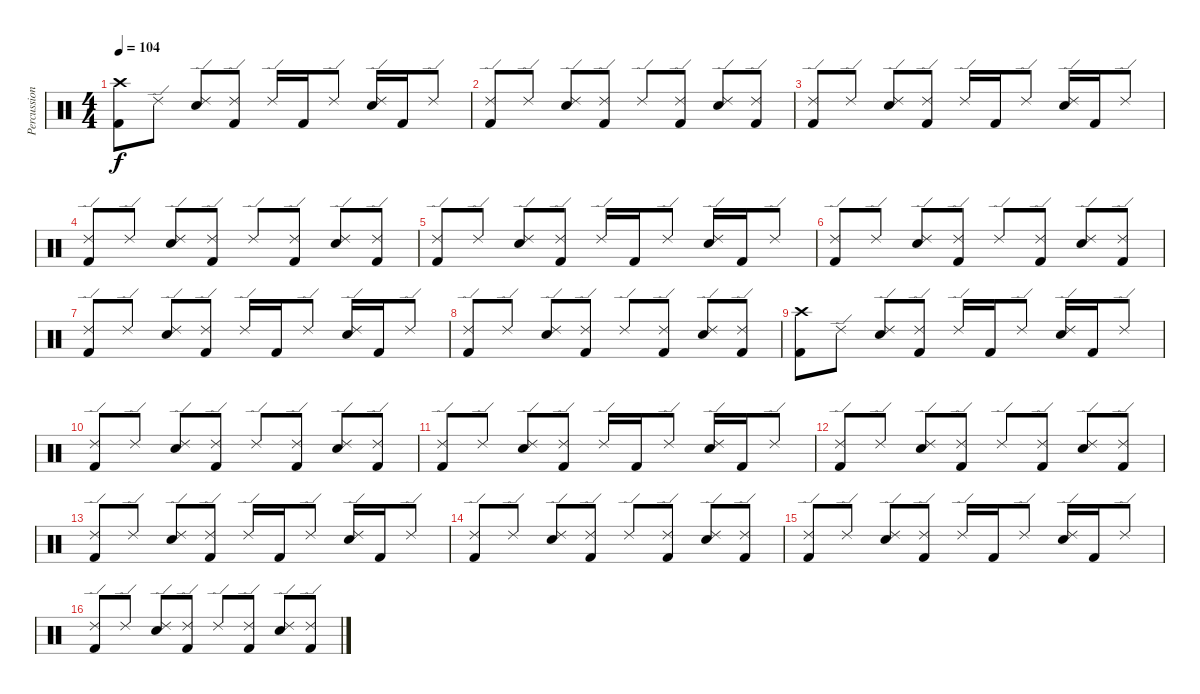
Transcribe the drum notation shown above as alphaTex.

\track ("Percussion" "Percussion") {instrument percussion}
\staff {score}
\articulation defaults
\ts (4 4)
\tempo 104
\clef neutral
\ks c
("Crash high (hit)" "Kick (hit) 2").8{dy f} "Ride (edge) 2".8 ("Ride (edge) 2" "Snare (hit) 2").8 ("Ride (edge) 2" "Kick (hit) 2").8 "Ride (edge) 2".16 "Kick (hit) 2".16 "Ride (edge) 2".8 ("Ride (edge) 2" "Snare (hit) 2").16 "Kick (hit) 2".16 "Ride (edge) 2".8 |
("Ride (edge) 2" "Kick (hit) 2").8 "Ride (edge) 2".8 ("Ride (edge) 2" "Snare (hit) 2").8 ("Ride (edge) 2" "Kick (hit) 2").8 "Ride (edge) 2".8 ("Ride (edge) 2" "Kick (hit) 2").8 ("Ride (edge) 2" "Snare (hit) 2").8 ("Ride (edge) 2" "Kick (hit) 2").8 |
("Ride (edge) 2" "Kick (hit) 2").8 "Ride (edge) 2".8 ("Ride (edge) 2" "Snare (hit) 2").8 ("Ride (edge) 2" "Kick (hit) 2").8 "Ride (edge) 2".16 "Kick (hit) 2".16 "Ride (edge) 2".8 ("Ride (edge) 2" "Snare (hit) 2").16 "Kick (hit) 2".16 "Ride (edge) 2".8 |
("Ride (edge) 2" "Kick (hit) 2").8 "Ride (edge) 2".8 ("Ride (edge) 2" "Snare (hit) 2").8 ("Ride (edge) 2" "Kick (hit) 2").8 "Ride (edge) 2".8 ("Ride (edge) 2" "Kick (hit) 2").8 ("Ride (edge) 2" "Snare (hit) 2").8 ("Ride (edge) 2" "Kick (hit) 2").8 |
("Ride (edge) 2" "Kick (hit) 2").8 "Ride (edge) 2".8 ("Ride (edge) 2" "Snare (hit) 2").8 ("Ride (edge) 2" "Kick (hit) 2").8 "Ride (edge) 2".16 "Kick (hit) 2".16 "Ride (edge) 2".8 ("Ride (edge) 2" "Snare (hit) 2").16 "Kick (hit) 2".16 "Ride (edge) 2".8 |
("Ride (edge) 2" "Kick (hit) 2").8 "Ride (edge) 2".8 ("Ride (edge) 2" "Snare (hit) 2").8 ("Ride (edge) 2" "Kick (hit) 2").8 "Ride (edge) 2".8 ("Ride (edge) 2" "Kick (hit) 2").8 ("Ride (edge) 2" "Snare (hit) 2").8 ("Ride (edge) 2" "Kick (hit) 2").8 |
("Ride (edge) 2" "Kick (hit) 2").8 "Ride (edge) 2".8 ("Ride (edge) 2" "Snare (hit) 2").8 ("Ride (edge) 2" "Kick (hit) 2").8 "Ride (edge) 2".16 "Kick (hit) 2".16 "Ride (edge) 2".8 ("Ride (edge) 2" "Snare (hit) 2").16 "Kick (hit) 2".16 "Ride (edge) 2".8 |
("Ride (edge) 2" "Kick (hit) 2").8 "Ride (edge) 2".8 ("Ride (edge) 2" "Snare (hit) 2").8 ("Ride (edge) 2" "Kick (hit) 2").8 "Ride (edge) 2".8 ("Ride (edge) 2" "Kick (hit) 2").8 ("Ride (edge) 2" "Snare (hit) 2").8 ("Ride (edge) 2" "Kick (hit) 2").8 |
("Crash high (hit)" "Kick (hit) 2").8 "Ride (edge) 2".8 ("Ride (edge) 2" "Snare (hit) 2").8 ("Ride (edge) 2" "Kick (hit) 2").8 "Ride (edge) 2".16 "Kick (hit) 2".16 "Ride (edge) 2".8 ("Ride (edge) 2" "Snare (hit) 2").16 "Kick (hit) 2".16 "Ride (edge) 2".8 |
("Ride (edge) 2" "Kick (hit) 2").8 "Ride (edge) 2".8 ("Ride (edge) 2" "Snare (hit) 2").8 ("Ride (edge) 2" "Kick (hit) 2").8 "Ride (edge) 2".8 ("Ride (edge) 2" "Kick (hit) 2").8 ("Ride (edge) 2" "Snare (hit) 2").8 ("Ride (edge) 2" "Kick (hit) 2").8 |
("Ride (edge) 2" "Kick (hit) 2").8 "Ride (edge) 2".8 ("Ride (edge) 2" "Snare (hit) 2").8 ("Ride (edge) 2" "Kick (hit) 2").8 "Ride (edge) 2".16 "Kick (hit) 2".16 "Ride (edge) 2".8 ("Ride (edge) 2" "Snare (hit) 2").16 "Kick (hit) 2".16 "Ride (edge) 2".8 |
("Ride (edge) 2" "Kick (hit) 2").8 "Ride (edge) 2".8 ("Ride (edge) 2" "Snare (hit) 2").8 ("Ride (edge) 2" "Kick (hit) 2").8 "Ride (edge) 2".8 ("Ride (edge) 2" "Kick (hit) 2").8 ("Ride (edge) 2" "Snare (hit) 2").8 ("Ride (edge) 2" "Kick (hit) 2").8 |
("Ride (edge) 2" "Kick (hit) 2").8 "Ride (edge) 2".8 ("Ride (edge) 2" "Snare (hit) 2").8 ("Ride (edge) 2" "Kick (hit) 2").8 "Ride (edge) 2".16 "Kick (hit) 2".16 "Ride (edge) 2".8 ("Ride (edge) 2" "Snare (hit) 2").16 "Kick (hit) 2".16 "Ride (edge) 2".8 |
("Ride (edge) 2" "Kick (hit) 2").8 "Ride (edge) 2".8 ("Ride (edge) 2" "Snare (hit) 2").8 ("Ride (edge) 2" "Kick (hit) 2").8 "Ride (edge) 2".8 ("Ride (edge) 2" "Kick (hit) 2").8 ("Ride (edge) 2" "Snare (hit) 2").8 ("Ride (edge) 2" "Kick (hit) 2").8 |
("Ride (edge) 2" "Kick (hit) 2").8 "Ride (edge) 2".8 ("Ride (edge) 2" "Snare (hit) 2").8 ("Ride (edge) 2" "Kick (hit) 2").8 "Ride (edge) 2".16 "Kick (hit) 2".16 "Ride (edge) 2".8 ("Ride (edge) 2" "Snare (hit) 2").16 "Kick (hit) 2".16 "Ride (edge) 2".8 |
("Ride (edge) 2" "Kick (hit) 2").8 "Ride (edge) 2".8 ("Ride (edge) 2" "Snare (hit) 2").8 ("Ride (edge) 2" "Kick (hit) 2").8 "Ride (edge) 2".8 ("Ride (edge) 2" "Kick (hit) 2").8 ("Ride (edge) 2" "Snare (hit) 2").8 ("Ride (edge) 2" "Kick (hit) 2").8
